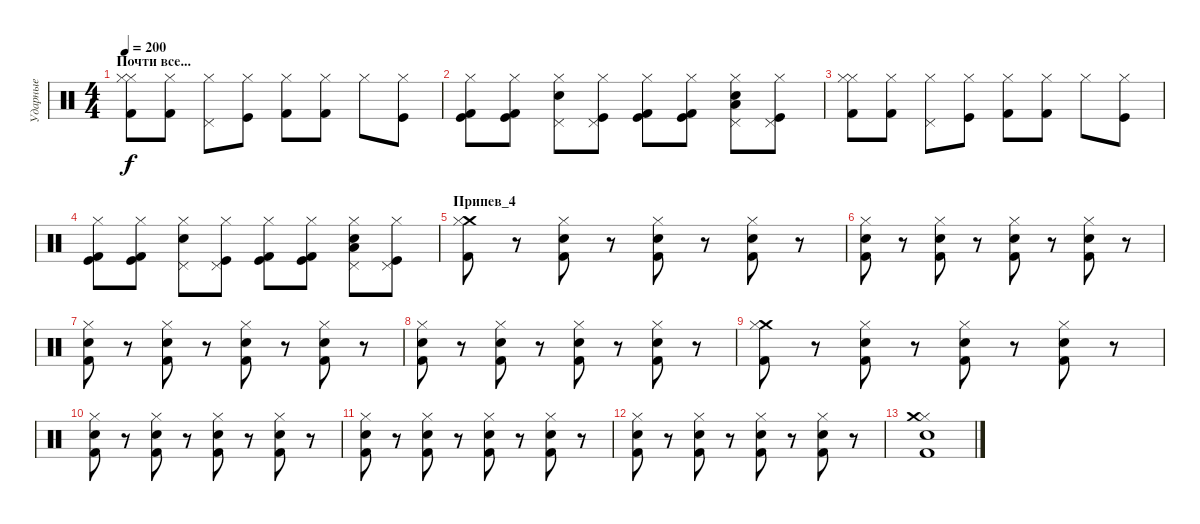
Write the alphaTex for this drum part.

\track ("Ударные" "Ударные") {instrument percussion}
\staff {score}
\articulation defaults
\ts (4 4)
\section ("" "Почти все...")
\tempo 200
\clef neutral
\ks c
("Hi-Hat (closed)" "Kick (hit) 2" "Hi-Hat (closed)").8{dy f} ("Hi-Hat (closed)" "Kick (hit) 2").8 ("Hi-Hat (closed)" "Pedal Hi-Hat (hit)").8 ("Hi-Hat (closed)" "Kick (hit)").8 ("Hi-Hat (closed)" "Kick (hit) 2").8 ("Hi-Hat (closed)" "Kick (hit) 2").8 "Hi-Hat (closed)".8 ("Hi-Hat (closed)" "Kick (hit)").8 |
("Kick (hit)" "Kick (hit) 2" "Hi-Hat (closed)").8 ("Kick (hit)" "Kick (hit) 2" "Hi-Hat (closed)").8 ("Electric Snare (hit)" "Pedal Hi-Hat (hit)" "Hi-Hat (closed)").8 ("Pedal Hi-Hat (hit)" "Kick (hit)" "Hi-Hat (closed)").8 ("Kick (hit)" "Kick (hit) 2" "Hi-Hat (closed)").8 ("Kick (hit)" "Kick (hit) 2" "Hi-Hat (closed)").8 ("Low Tom (hit)" "Electric Snare (hit)" "Pedal Hi-Hat (hit)" "Hi-Hat (closed)").8 ("Pedal Hi-Hat (hit)" "Kick (hit)" "Hi-Hat (closed)").8 |
("Hi-Hat (closed)" "Kick (hit) 2" "Hi-Hat (closed)").8 ("Hi-Hat (closed)" "Kick (hit) 2").8 ("Hi-Hat (closed)" "Pedal Hi-Hat (hit)").8 ("Hi-Hat (closed)" "Kick (hit)").8 ("Hi-Hat (closed)" "Kick (hit) 2").8 ("Hi-Hat (closed)" "Kick (hit) 2").8 "Hi-Hat (closed)".8 ("Hi-Hat (closed)" "Kick (hit)").8 |
("Kick (hit)" "Kick (hit) 2" "Hi-Hat (closed)").8 ("Kick (hit)" "Kick (hit) 2" "Hi-Hat (closed)").8 ("Electric Snare (hit)" "Pedal Hi-Hat (hit)" "Hi-Hat (closed)").8 ("Pedal Hi-Hat (hit)" "Kick (hit)" "Hi-Hat (closed)").8 ("Kick (hit)" "Kick (hit) 2" "Hi-Hat (closed)").8 ("Kick (hit)" "Kick (hit) 2" "Hi-Hat (closed)").8 ("Low Tom (hit)" "Electric Snare (hit)" "Pedal Hi-Hat (hit)" "Hi-Hat (closed)").8 ("Pedal Hi-Hat (hit)" "Kick (hit)" "Hi-Hat (closed)").8 |
\section ("" "Припев_4")
("Crash medium (hit)" "Kick (hit) 2" "Hi-Hat (closed)").8 r.8 ("Snare (hit) 2" "Kick (hit) 2" "Hi-Hat (closed)").8 r.8 ("Snare (hit) 2" "Kick (hit) 2" "Hi-Hat (closed)").8 r.8 ("Snare (hit) 2" "Kick (hit) 2" "Hi-Hat (closed)").8 r.8 |
("Snare (hit) 2" "Kick (hit) 2" "Hi-Hat (closed)").8 r.8 ("Snare (hit) 2" "Kick (hit) 2" "Hi-Hat (closed)").8 r.8 ("Snare (hit) 2" "Kick (hit) 2" "Hi-Hat (closed)").8 r.8 ("Snare (hit) 2" "Kick (hit) 2" "Hi-Hat (closed)").8 r.8 |
("Snare (hit) 2" "Kick (hit) 2" "Hi-Hat (closed)").8 r.8 ("Snare (hit) 2" "Kick (hit) 2" "Hi-Hat (closed)").8 r.8 ("Snare (hit) 2" "Kick (hit) 2" "Hi-Hat (closed)").8 r.8 ("Snare (hit) 2" "Kick (hit) 2" "Hi-Hat (closed)").8 r.8 |
("Snare (hit) 2" "Kick (hit) 2" "Hi-Hat (closed)").8 r.8 ("Snare (hit) 2" "Kick (hit) 2" "Hi-Hat (closed)").8 r.8 ("Snare (hit) 2" "Kick (hit) 2" "Hi-Hat (closed)").8 r.8 ("Snare (hit) 2" "Kick (hit) 2" "Hi-Hat (closed)").8 r.8 |
("Crash medium (hit)" "Kick (hit) 2" "Hi-Hat (closed)").8 r.8 ("Snare (hit) 2" "Kick (hit) 2" "Hi-Hat (closed)").8 r.8 ("Snare (hit) 2" "Kick (hit) 2" "Hi-Hat (closed)").8 r.8 ("Snare (hit) 2" "Kick (hit) 2" "Hi-Hat (closed)").8 r.8 |
("Snare (hit) 2" "Kick (hit) 2" "Hi-Hat (closed)").8 r.8 ("Snare (hit) 2" "Kick (hit) 2" "Hi-Hat (closed)").8 r.8 ("Snare (hit) 2" "Kick (hit) 2" "Hi-Hat (closed)").8 r.8 ("Snare (hit) 2" "Kick (hit) 2" "Hi-Hat (closed)").8 r.8 |
("Snare (hit) 2" "Kick (hit) 2" "Hi-Hat (closed)").8 r.8 ("Snare (hit) 2" "Kick (hit) 2" "Hi-Hat (closed)").8 r.8 ("Snare (hit) 2" "Kick (hit) 2" "Hi-Hat (closed)").8 r.8 ("Snare (hit) 2" "Kick (hit) 2" "Hi-Hat (closed)").8 r.8 |
("Snare (hit) 2" "Kick (hit) 2" "Hi-Hat (closed)").8 r.8 ("Snare (hit) 2" "Kick (hit) 2" "Hi-Hat (closed)").8 r.8 ("Snare (hit) 2" "Kick (hit) 2" "Hi-Hat (closed)").8 r.8 ("Snare (hit) 2" "Kick (hit) 2" "Hi-Hat (closed)").8 r.8 |
("Snare (hit) 2" "Kick (hit) 2" "Hi-Hat (closed)" "Crash medium (hit)").1
